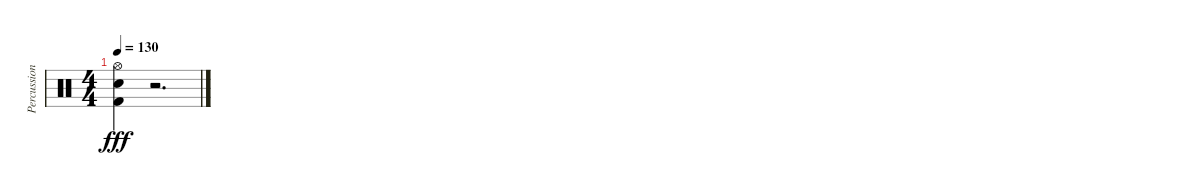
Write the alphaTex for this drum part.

\track ("Percussion" "Percussion") {instrument percussion}
\staff {score}
\articulation defaults
\ts (4 4)
\tempo 130
\clef neutral
\ks c
("Hi-Hat (open)" "Electric Snare (hit)" "Kick (hit) 2").4{dy fff} r.2{d}
